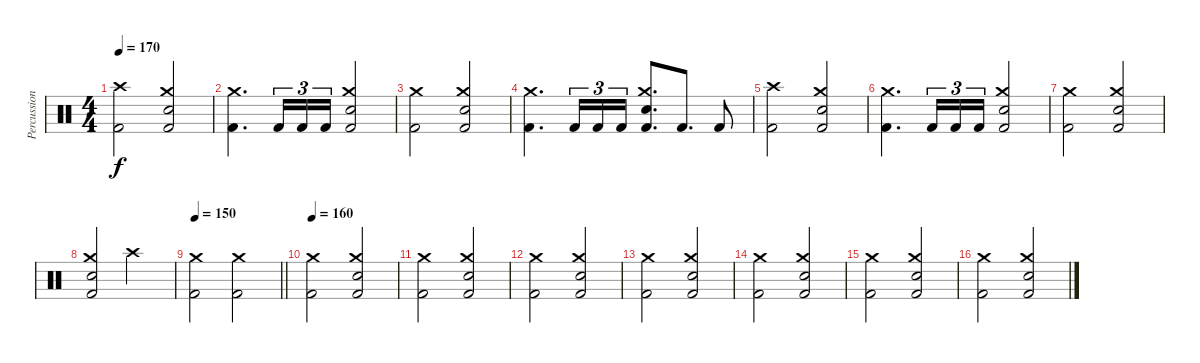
\track ("Percussion" "Percussion") {instrument percussion}
\staff {score}
\articulation defaults
\ts (4 4)
\section ("" "")
\tempo 170
\clef neutral
\ks c
("Crash high (hit)" "Kick (hit) 2").2{dy f} ("Crash medium (hit)" "Electric Snare (hit)" "Kick (hit) 2").2 |
("Crash medium (hit)" "Kick (hit) 2").4{d} "Kick (hit) 2".16{tu (3 2)} "Kick (hit) 2".16{tu (3 2)} "Kick (hit) 2".16{tu (3 2)} ("Crash medium (hit)" "Electric Snare (hit)" "Kick (hit) 2").2 |
("Crash medium (hit)" "Kick (hit) 2").2 ("Crash medium (hit)" "Electric Snare (hit)" "Kick (hit) 2").2 |
("Crash medium (hit)" "Kick (hit) 2").4{d} "Kick (hit) 2".16{tu (3 2)} "Kick (hit) 2".16{tu (3 2)} "Kick (hit) 2".16{tu (3 2)} ("Crash medium (hit)" "Electric Snare (hit)" "Kick (hit) 2").8{d} "Kick (hit) 2".8{d} "Kick (hit) 2".8 |
("Crash high (hit)" "Kick (hit) 2").2 ("Crash medium (hit)" "Electric Snare (hit)" "Kick (hit) 2").2 |
("Crash medium (hit)" "Kick (hit) 2").4{d} "Kick (hit) 2".16{tu (3 2)} "Kick (hit) 2".16{tu (3 2)} "Kick (hit) 2".16{tu (3 2)} ("Crash medium (hit)" "Electric Snare (hit)" "Kick (hit) 2").2 |
("Crash medium (hit)" "Kick (hit) 2").2 ("Crash medium (hit)" "Electric Snare (hit)" "Kick (hit) 2").2 |
("Crash medium (hit)" "Electric Snare (hit)" "Kick (hit) 2").2 "Crash high (hit)".2 |
\tempo 150
\barLineRight lightlight
("Crash medium (hit)" "Kick (hit) 2").2 ("Crash medium (hit)" "Kick (hit) 2").2 |
\section ("" "")
\tempo 160
("Crash medium (hit)" "Kick (hit) 2").2 ("Crash medium (hit)" "Electric Snare (hit)" "Kick (hit) 2").2 |
("Crash medium (hit)" "Kick (hit) 2").2 ("Crash medium (hit)" "Electric Snare (hit)" "Kick (hit) 2").2 |
("Crash medium (hit)" "Kick (hit) 2").2 ("Crash medium (hit)" "Electric Snare (hit)" "Kick (hit) 2").2 |
("Crash medium (hit)" "Kick (hit) 2").2 ("Crash medium (hit)" "Electric Snare (hit)" "Kick (hit) 2").2 |
("Crash medium (hit)" "Kick (hit) 2").2 ("Crash medium (hit)" "Electric Snare (hit)" "Kick (hit) 2").2 |
("Crash medium (hit)" "Kick (hit) 2").2 ("Crash medium (hit)" "Electric Snare (hit)" "Kick (hit) 2").2 |
("Crash medium (hit)" "Kick (hit) 2").2 ("Crash medium (hit)" "Electric Snare (hit)" "Kick (hit) 2").2
